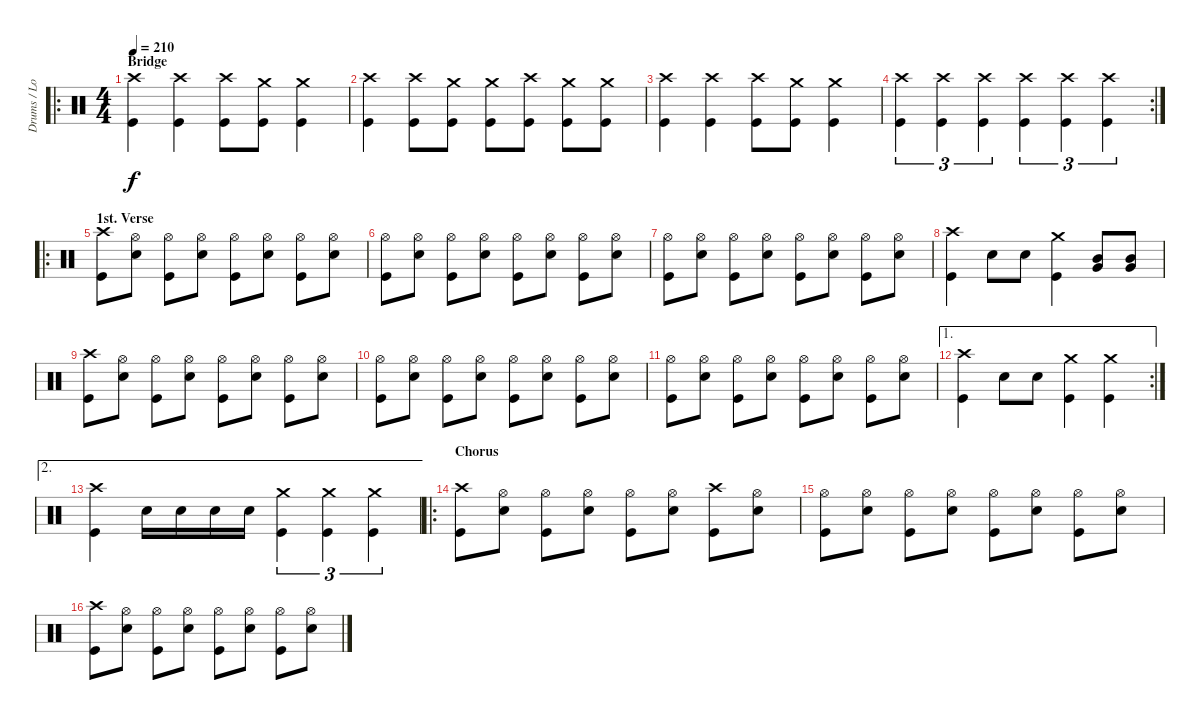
\track ("Drums / Louie Clemente" "Drums / Lo") {instrument percussion}
\staff {score}
\articulation defaults
\ro
\ts (4 4)
\section ("" "Bridge")
\tempo 210
\clef neutral
\ks c
("Crash high (hit)" "Kick (hit)").4{dy f} ("Crash high (hit)" "Kick (hit)").4 ("Crash high (hit)" "Kick (hit)").8 ("Crash medium (hit)" "Kick (hit)").8 ("Crash medium (hit)" "Kick (hit)").4 |
("Crash high (hit)" "Kick (hit)").4 ("Crash high (hit)" "Kick (hit)").8 ("Crash medium (hit)" "Kick (hit)").8 ("Crash medium (hit)" "Kick (hit)").8 ("Crash high (hit)" "Kick (hit)").8 ("Crash medium (hit)" "Kick (hit)").8 ("Crash medium (hit)" "Kick (hit)").8 |
("Crash high (hit)" "Kick (hit)").4 ("Crash high (hit)" "Kick (hit)").4 ("Crash high (hit)" "Kick (hit)").8 ("Crash medium (hit)" "Kick (hit)").8 ("Crash medium (hit)" "Kick (hit)").4 |
\rc 2
("Crash high (hit)" "Kick (hit)").4{tu (3 2)} ("Crash high (hit)" "Kick (hit)").4{tu (3 2)} ("Crash high (hit)" "Kick (hit)").4{tu (3 2)} ("Crash high (hit)" "Kick (hit)").4{tu (3 2)} ("Crash high (hit)" "Kick (hit)").4{tu (3 2)} ("Crash high (hit)" "Kick (hit)").4{tu (3 2)} |
\ro
\section ("" "1st. Verse")
("Crash high (hit)" "Kick (hit)").8 ("Hi-Hat (open)" "Snare (hit) 2").8 ("Hi-Hat (open)" "Kick (hit)").8 ("Hi-Hat (open)" "Snare (hit) 2").8 ("Hi-Hat (open)" "Kick (hit)").8 ("Hi-Hat (open)" "Snare (hit) 2").8 ("Hi-Hat (open)" "Kick (hit)").8 ("Hi-Hat (open)" "Snare (hit) 2").8 |
("Hi-Hat (open)" "Kick (hit)").8 ("Hi-Hat (open)" "Snare (hit) 2").8 ("Hi-Hat (open)" "Kick (hit)").8 ("Hi-Hat (open)" "Snare (hit) 2").8 ("Hi-Hat (open)" "Kick (hit)").8 ("Hi-Hat (open)" "Snare (hit) 2").8 ("Hi-Hat (open)" "Kick (hit)").8 ("Hi-Hat (open)" "Snare (hit) 2").8 |
("Hi-Hat (open)" "Kick (hit)").8 ("Hi-Hat (open)" "Snare (hit) 2").8 ("Hi-Hat (open)" "Kick (hit)").8 ("Hi-Hat (open)" "Snare (hit) 2").8 ("Hi-Hat (open)" "Kick (hit)").8 ("Hi-Hat (open)" "Snare (hit) 2").8 ("Hi-Hat (open)" "Kick (hit)").8 ("Hi-Hat (open)" "Snare (hit) 2").8 |
("Crash high (hit)" "Kick (hit)").4 "Snare (hit) 2".8 "Snare (hit) 2".8 ("Crash medium (hit)" "Kick (hit)").4 ("Very Low Tom (hit)" "Mid Tom (hit)").8 ("Very Low Tom (hit)" "Mid Tom (hit)").8 |
("Crash high (hit)" "Kick (hit)").8 ("Hi-Hat (open)" "Snare (hit) 2").8 ("Hi-Hat (open)" "Kick (hit)").8 ("Hi-Hat (open)" "Snare (hit) 2").8 ("Hi-Hat (open)" "Kick (hit)").8 ("Hi-Hat (open)" "Snare (hit) 2").8 ("Hi-Hat (open)" "Kick (hit)").8 ("Hi-Hat (open)" "Snare (hit) 2").8 |
("Hi-Hat (open)" "Kick (hit)").8 ("Hi-Hat (open)" "Snare (hit) 2").8 ("Hi-Hat (open)" "Kick (hit)").8 ("Hi-Hat (open)" "Snare (hit) 2").8 ("Hi-Hat (open)" "Kick (hit)").8 ("Hi-Hat (open)" "Snare (hit) 2").8 ("Hi-Hat (open)" "Kick (hit)").8 ("Hi-Hat (open)" "Snare (hit) 2").8 |
("Hi-Hat (open)" "Kick (hit)").8 ("Hi-Hat (open)" "Snare (hit) 2").8 ("Hi-Hat (open)" "Kick (hit)").8 ("Hi-Hat (open)" "Snare (hit) 2").8 ("Hi-Hat (open)" "Kick (hit)").8 ("Hi-Hat (open)" "Snare (hit) 2").8 ("Hi-Hat (open)" "Kick (hit)").8 ("Hi-Hat (open)" "Snare (hit) 2").8 |
\ae 1
\rc 2
("Crash high (hit)" "Kick (hit)").4 "Snare (hit) 2".8 "Snare (hit) 2".8 ("Crash medium (hit)" "Kick (hit)").4 ("Crash medium (hit)" "Kick (hit)").4 |
\ae 2
("Crash high (hit)" "Kick (hit)").4 "Snare (hit) 2".16 "Snare (hit) 2".16 "Snare (hit) 2".16 "Snare (hit) 2".16 ("Crash medium (hit)" "Kick (hit)").4{tu (3 2)} ("Crash medium (hit)" "Kick (hit)").4{tu (3 2)} ("Crash medium (hit)" "Kick (hit)").4{tu (3 2)} |
\ro
\section ("" "Chorus")
("Crash high (hit)" "Kick (hit)").8 ("Hi-Hat (open)" "Snare (hit) 2").8 ("Hi-Hat (open)" "Kick (hit)").8 ("Hi-Hat (open)" "Snare (hit) 2").8 ("Hi-Hat (open)" "Kick (hit)").8 ("Hi-Hat (open)" "Snare (hit) 2").8 ("Crash high (hit)" "Kick (hit)").8 ("Hi-Hat (open)" "Snare (hit) 2").8 |
("Hi-Hat (open)" "Kick (hit)").8 ("Hi-Hat (open)" "Snare (hit) 2").8 ("Hi-Hat (open)" "Kick (hit)").8 ("Hi-Hat (open)" "Snare (hit) 2").8 ("Hi-Hat (open)" "Kick (hit)").8 ("Hi-Hat (open)" "Snare (hit) 2").8 ("Hi-Hat (open)" "Kick (hit)").8 ("Hi-Hat (open)" "Snare (hit) 2").8 |
("Crash high (hit)" "Kick (hit)").8 ("Hi-Hat (open)" "Snare (hit) 2").8 ("Hi-Hat (open)" "Kick (hit)").8 ("Hi-Hat (open)" "Snare (hit) 2").8 ("Hi-Hat (open)" "Kick (hit)").8 ("Hi-Hat (open)" "Snare (hit) 2").8 ("Hi-Hat (open)" "Kick (hit)").8 ("Hi-Hat (open)" "Snare (hit) 2").8
